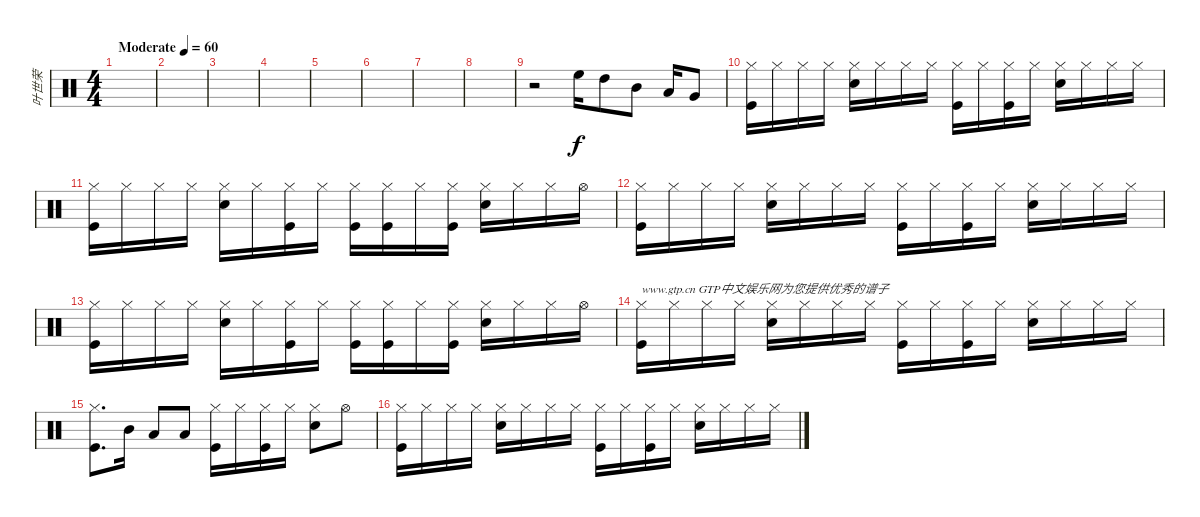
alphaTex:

\track ("叶世荣" "叶世荣") {instrument percussion}
\staff {score}
\articulation defaults
\ts (4 4)
\tempo (60 "Moderate")
\clef neutral
\ks c
|
|
|
|
|
|
|
|
r.2 "High Floor Tom (hit)".16 "High Tom (hit)".8 "Mid Tom (hit)".8 "Low Tom (hit)".16 "Very Low Tom (hit)".8 |
("Hi-Hat (closed)" "Kick (hit)").16 "Hi-Hat (closed)".16 "Hi-Hat (closed)".16 "Hi-Hat (closed)".16 ("Hi-Hat (closed)" "Snare (hit) 2").16 "Hi-Hat (closed)".16 "Hi-Hat (closed)".16 "Hi-Hat (closed)".16 ("Hi-Hat (closed)" "Kick (hit)").16 "Hi-Hat (closed)".16 ("Hi-Hat (closed)" "Kick (hit)").16 "Hi-Hat (closed)".16 ("Hi-Hat (closed)" "Snare (hit) 2").16 "Hi-Hat (closed)".16 "Hi-Hat (closed)".16 "Hi-Hat (closed)".16 |
("Hi-Hat (closed)" "Kick (hit)").16 "Hi-Hat (closed)".16 "Hi-Hat (closed)".16 "Hi-Hat (closed)".16 ("Hi-Hat (closed)" "Snare (hit) 2").16 "Hi-Hat (closed)".16 ("Hi-Hat (closed)" "Kick (hit)").16 "Hi-Hat (closed)".16 ("Hi-Hat (closed)" "Kick (hit)").16 ("Hi-Hat (closed)" "Kick (hit)").16 "Hi-Hat (closed)".16 ("Hi-Hat (closed)" "Kick (hit)").16 ("Hi-Hat (closed)" "Snare (hit) 2").16 "Hi-Hat (closed)".16 "Hi-Hat (closed)".16 "Hi-Hat (open)".16 |
("Hi-Hat (closed)" "Kick (hit)").16 "Hi-Hat (closed)".16 "Hi-Hat (closed)".16 "Hi-Hat (closed)".16 ("Hi-Hat (closed)" "Snare (hit) 2").16 "Hi-Hat (closed)".16 "Hi-Hat (closed)".16 "Hi-Hat (closed)".16 ("Hi-Hat (closed)" "Kick (hit)").16 "Hi-Hat (closed)".16 ("Hi-Hat (closed)" "Kick (hit)").16 "Hi-Hat (closed)".16 ("Hi-Hat (closed)" "Snare (hit) 2").16 "Hi-Hat (closed)".16 "Hi-Hat (closed)".16 "Hi-Hat (closed)".16 |
("Hi-Hat (closed)" "Kick (hit)").16 "Hi-Hat (closed)".16 "Hi-Hat (closed)".16 "Hi-Hat (closed)".16 ("Hi-Hat (closed)" "Snare (hit) 2").16 "Hi-Hat (closed)".16 ("Hi-Hat (closed)" "Kick (hit)").16 "Hi-Hat (closed)".16 ("Hi-Hat (closed)" "Kick (hit)").16 ("Hi-Hat (closed)" "Kick (hit)").16 "Hi-Hat (closed)".16 ("Hi-Hat (closed)" "Kick (hit)").16 ("Hi-Hat (closed)" "Snare (hit) 2").16 "Hi-Hat (closed)".16 "Hi-Hat (closed)".16 "Hi-Hat (open)".16 |
("Hi-Hat (closed)" "Kick (hit)").16{txt "www.gtp.cn GTP中文娱乐网为您提供优秀的谱子"} "Hi-Hat (closed)".16 "Hi-Hat (closed)".16 "Hi-Hat (closed)".16 ("Hi-Hat (closed)" "Snare (hit) 2").16 "Hi-Hat (closed)".16 "Hi-Hat (closed)".16 "Hi-Hat (closed)".16 ("Hi-Hat (closed)" "Kick (hit)").16 "Hi-Hat (closed)".16 ("Hi-Hat (closed)" "Kick (hit)").16 "Hi-Hat (closed)".16 ("Hi-Hat (closed)" "Snare (hit) 2").16 "Hi-Hat (closed)".16 "Hi-Hat (closed)".16 "Hi-Hat (closed)".16 |
("Hi-Hat (closed)" "Kick (hit)").8{d} "Mid Tom (hit)".16 "Low Tom (hit)".8 "Low Floor Tom (hit)".8 ("Hi-Hat (closed)" "Kick (hit)").16 "Hi-Hat (closed)".16 ("Hi-Hat (closed)" "Kick (hit)").16 "Hi-Hat (closed)".16 ("Hi-Hat (closed)" "Snare (hit) 2").8 "Hi-Hat (open)".8 |
("Hi-Hat (closed)" "Kick (hit)").16 "Hi-Hat (closed)".16 "Hi-Hat (closed)".16 "Hi-Hat (closed)".16 ("Hi-Hat (closed)" "Snare (hit) 2").16 "Hi-Hat (closed)".16 "Hi-Hat (closed)".16 "Hi-Hat (closed)".16 ("Hi-Hat (closed)" "Kick (hit)").16 "Hi-Hat (closed)".16 ("Hi-Hat (closed)" "Kick (hit)").16 "Hi-Hat (closed)".16 ("Hi-Hat (closed)" "Snare (hit) 2").16 "Hi-Hat (closed)".16 "Hi-Hat (closed)".16 "Hi-Hat (closed)".16
